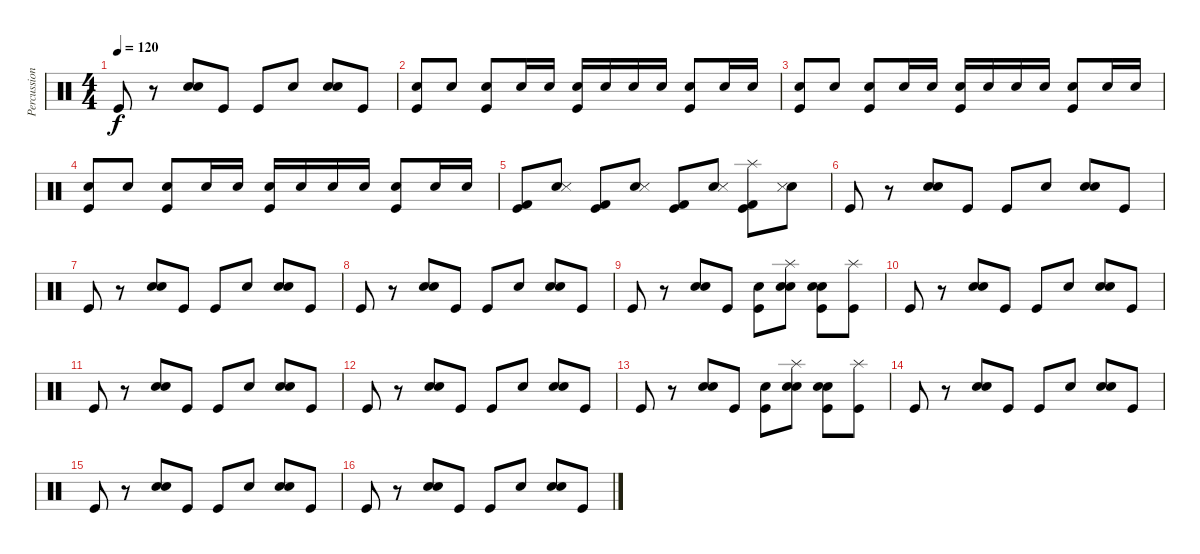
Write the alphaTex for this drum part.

\track ("Percussion" "Percussion") {instrument percussion}
\staff {score}
\articulation defaults
\ts (4 4)
\tempo 120
\clef neutral
\ks c "Kick (hit)".8{dy f}
r.8 ("Hand Clap (hit)" "Snare (hit) 2").8 "Kick (hit)".8 "Kick (hit)".8 "Hand Clap (hit)".8 ("Hand Clap (hit)" "Snare (hit) 2").8 "Kick (hit)".8 |
("Snare (hit) 2" "Kick (hit)").8 "Snare (hit) 2".8 ("Snare (hit) 2" "Kick (hit)").8 "Snare (hit) 2".16 "Snare (hit) 2".16 ("Snare (hit) 2" "Kick (hit)").16 "Snare (hit) 2".16 "Snare (hit) 2".16 "Snare (hit) 2".16 ("Snare (hit) 2" "Kick (hit)").8 "Snare (hit) 2".16 "Snare (hit) 2".16 |
("Snare (hit) 2" "Kick (hit)").8 "Snare (hit) 2".8 ("Snare (hit) 2" "Kick (hit)").8 "Snare (hit) 2".16 "Snare (hit) 2".16 ("Snare (hit) 2" "Kick (hit)").16 "Snare (hit) 2".16 "Snare (hit) 2".16 "Snare (hit) 2".16 ("Snare (hit) 2" "Kick (hit)").8 "Snare (hit) 2".16 "Snare (hit) 2".16 |
("Snare (hit) 2" "Kick (hit)").8 "Snare (hit) 2".8 ("Snare (hit) 2" "Kick (hit)").8 "Snare (hit) 2".16 "Snare (hit) 2".16 ("Snare (hit) 2" "Kick (hit)").16 "Snare (hit) 2".16 "Snare (hit) 2".16 "Snare (hit) 2".16 ("Snare (hit) 2" "Kick (hit)").8 "Snare (hit) 2".16 "Snare (hit) 2".16 |
("Kick (hit) 2" "Kick (hit)").8 ("Snare (hit) 2" "Snare (side stick) 3").8 ("Kick (hit) 2" "Kick (hit)").8 ("Snare (hit) 2" "Snare (side stick) 3").8 ("Kick (hit) 2" "Kick (hit)").8 ("Snare (hit) 2" "Snare (side stick) 3").8 ("Splash (hit)" "Kick (hit) 2" "Kick (hit)").8 ("Snare (hit) 2" "Snare (side stick) 3").8 |
"Kick (hit)".8 r.8 ("Hand Clap (hit)" "Snare (hit) 2").8 "Kick (hit)".8 "Kick (hit)".8 "Hand Clap (hit)".8 ("Hand Clap (hit)" "Snare (hit) 2").8 "Kick (hit)".8 |
"Kick (hit)".8 r.8 ("Hand Clap (hit)" "Snare (hit) 2").8 "Kick (hit)".8 "Kick (hit)".8 "Hand Clap (hit)".8 ("Hand Clap (hit)" "Snare (hit) 2").8 "Kick (hit)".8 |
"Kick (hit)".8 r.8 ("Hand Clap (hit)" "Snare (hit) 2").8 "Kick (hit)".8 "Kick (hit)".8 "Hand Clap (hit)".8 ("Hand Clap (hit)" "Snare (hit) 2").8 "Kick (hit)".8 |
"Kick (hit)".8 r.8 ("Hand Clap (hit)" "Snare (hit) 2").8 "Kick (hit)".8 ("Snare (hit) 2" "Kick (hit)").8 ("Splash (hit)" "Hand Clap (hit)" "Snare (hit) 2").8 ("Hand Clap (hit)" "Snare (hit) 2" "Kick (hit)").8 ("Splash (hit)" "Kick (hit)").8 |
"Kick (hit)".8 r.8 ("Hand Clap (hit)" "Snare (hit) 2").8 "Kick (hit)".8 "Kick (hit)".8 "Hand Clap (hit)".8 ("Hand Clap (hit)" "Snare (hit) 2").8 "Kick (hit)".8 |
"Kick (hit)".8 r.8 ("Hand Clap (hit)" "Snare (hit) 2").8 "Kick (hit)".8 "Kick (hit)".8 "Hand Clap (hit)".8 ("Hand Clap (hit)" "Snare (hit) 2").8 "Kick (hit)".8 |
"Kick (hit)".8 r.8 ("Hand Clap (hit)" "Snare (hit) 2").8 "Kick (hit)".8 "Kick (hit)".8 "Hand Clap (hit)".8 ("Hand Clap (hit)" "Snare (hit) 2").8 "Kick (hit)".8 |
"Kick (hit)".8 r.8 ("Hand Clap (hit)" "Snare (hit) 2").8 "Kick (hit)".8 ("Snare (hit) 2" "Kick (hit)").8 ("Splash (hit)" "Hand Clap (hit)" "Snare (hit) 2").8 ("Hand Clap (hit)" "Snare (hit) 2" "Kick (hit)").8 ("Splash (hit)" "Kick (hit)").8 |
"Kick (hit)".8 r.8 ("Hand Clap (hit)" "Snare (hit) 2").8 "Kick (hit)".8 "Kick (hit)".8 "Hand Clap (hit)".8 ("Hand Clap (hit)" "Snare (hit) 2").8 "Kick (hit)".8 |
"Kick (hit)".8 r.8 ("Hand Clap (hit)" "Snare (hit) 2").8 "Kick (hit)".8 "Kick (hit)".8 "Hand Clap (hit)".8 ("Hand Clap (hit)" "Snare (hit) 2").8 "Kick (hit)".8 |
"Kick (hit)".8 r.8 ("Hand Clap (hit)" "Snare (hit) 2").8 "Kick (hit)".8 "Kick (hit)".8 "Hand Clap (hit)".8 ("Hand Clap (hit)" "Snare (hit) 2").8 "Kick (hit)".8
